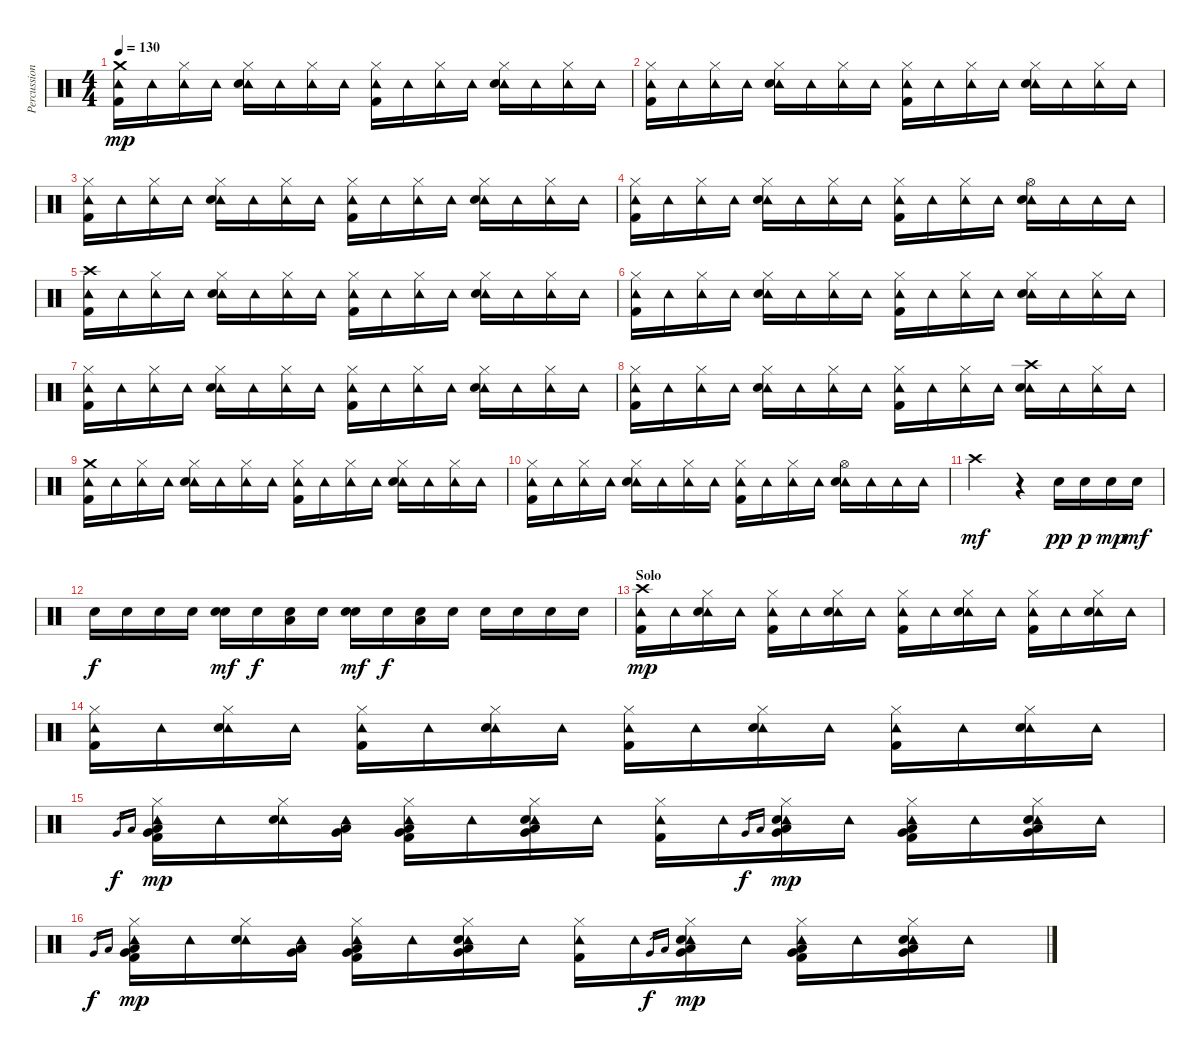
\track ("Percussion (Bela)" "Percussion") {instrument percussion}
\staff {score}
\articulation defaults
\ts (4 4)
\tempo 130
\clef neutral
\ks c
("Crash medium (hit)" "Tambourine (hit)" "Kick (hit) 2").16{dy mp} "Tambourine (hit)".16 ("Hi-Hat (closed)" "Tambourine (hit)").16 "Tambourine (hit)".16 ("Hi-Hat (closed)" "Tambourine (hit)" "Electric Snare (hit)").16 "Tambourine (hit)".16 ("Hi-Hat (closed)" "Tambourine (hit)").16 "Tambourine (hit)".16 ("Hi-Hat (closed)" "Tambourine (hit)" "Kick (hit) 2").16 "Tambourine (hit)".16 ("Hi-Hat (closed)" "Tambourine (hit)").16 "Tambourine (hit)".16 ("Hi-Hat (closed)" "Tambourine (hit)" "Electric Snare (hit)").16 "Tambourine (hit)".16 ("Hi-Hat (closed)" "Tambourine (hit)").16 "Tambourine (hit)".16 |
("Hi-Hat (closed)" "Tambourine (hit)" "Kick (hit) 2").16 "Tambourine (hit)".16 ("Hi-Hat (closed)" "Tambourine (hit)").16 "Tambourine (hit)".16 ("Hi-Hat (closed)" "Tambourine (hit)" "Electric Snare (hit)").16 "Tambourine (hit)".16 ("Hi-Hat (closed)" "Tambourine (hit)").16 "Tambourine (hit)".16 ("Hi-Hat (closed)" "Tambourine (hit)" "Kick (hit) 2").16 "Tambourine (hit)".16 ("Hi-Hat (closed)" "Tambourine (hit)").16 "Tambourine (hit)".16 ("Hi-Hat (closed)" "Tambourine (hit)" "Electric Snare (hit)").16 "Tambourine (hit)".16 ("Hi-Hat (closed)" "Tambourine (hit)").16 "Tambourine (hit)".16 |
("Hi-Hat (closed)" "Tambourine (hit)" "Kick (hit) 2").16 "Tambourine (hit)".16 ("Hi-Hat (closed)" "Tambourine (hit)").16 "Tambourine (hit)".16 ("Hi-Hat (closed)" "Tambourine (hit)" "Electric Snare (hit)").16 "Tambourine (hit)".16 ("Hi-Hat (closed)" "Tambourine (hit)").16 "Tambourine (hit)".16 ("Hi-Hat (closed)" "Tambourine (hit)" "Kick (hit) 2").16 "Tambourine (hit)".16 ("Hi-Hat (closed)" "Tambourine (hit)").16 "Tambourine (hit)".16 ("Hi-Hat (closed)" "Tambourine (hit)" "Electric Snare (hit)").16 "Tambourine (hit)".16 ("Hi-Hat (closed)" "Tambourine (hit)").16 "Tambourine (hit)".16 |
("Hi-Hat (closed)" "Tambourine (hit)" "Kick (hit) 2").16 "Tambourine (hit)".16 ("Hi-Hat (closed)" "Tambourine (hit)").16 "Tambourine (hit)".16 ("Hi-Hat (closed)" "Tambourine (hit)" "Electric Snare (hit)").16 "Tambourine (hit)".16 ("Hi-Hat (closed)" "Tambourine (hit)").16 "Tambourine (hit)".16 ("Hi-Hat (closed)" "Tambourine (hit)" "Kick (hit) 2").16 "Tambourine (hit)".16 ("Hi-Hat (closed)" "Tambourine (hit)").16 "Tambourine (hit)".16 ("Hi-Hat (open)" "Tambourine (hit)" "Electric Snare (hit)").16 "Tambourine (hit)".16 "Tambourine (hit)".16 "Tambourine (hit)".16 |
("Crash high (hit)" "Tambourine (hit)" "Kick (hit) 2").16 "Tambourine (hit)".16 ("Hi-Hat (closed)" "Tambourine (hit)").16 "Tambourine (hit)".16 ("Hi-Hat (closed)" "Tambourine (hit)" "Electric Snare (hit)").16 "Tambourine (hit)".16 ("Hi-Hat (closed)" "Tambourine (hit)").16 "Tambourine (hit)".16 ("Hi-Hat (closed)" "Tambourine (hit)" "Kick (hit) 2").16 "Tambourine (hit)".16 ("Hi-Hat (closed)" "Tambourine (hit)").16 "Tambourine (hit)".16 ("Hi-Hat (closed)" "Tambourine (hit)" "Electric Snare (hit)").16 "Tambourine (hit)".16 ("Hi-Hat (closed)" "Tambourine (hit)").16 "Tambourine (hit)".16 |
("Hi-Hat (closed)" "Tambourine (hit)" "Kick (hit) 2").16 "Tambourine (hit)".16 ("Hi-Hat (closed)" "Tambourine (hit)").16 "Tambourine (hit)".16 ("Hi-Hat (closed)" "Tambourine (hit)" "Electric Snare (hit)").16 "Tambourine (hit)".16 ("Hi-Hat (closed)" "Tambourine (hit)").16 "Tambourine (hit)".16 ("Hi-Hat (closed)" "Tambourine (hit)" "Kick (hit) 2").16 "Tambourine (hit)".16 ("Hi-Hat (closed)" "Tambourine (hit)").16 "Tambourine (hit)".16 ("Hi-Hat (closed)" "Tambourine (hit)" "Electric Snare (hit)").16 "Tambourine (hit)".16 ("Hi-Hat (closed)" "Tambourine (hit)").16 "Tambourine (hit)".16 |
("Hi-Hat (closed)" "Tambourine (hit)" "Kick (hit) 2").16 "Tambourine (hit)".16 ("Hi-Hat (closed)" "Tambourine (hit)").16 "Tambourine (hit)".16 ("Hi-Hat (closed)" "Tambourine (hit)" "Electric Snare (hit)").16 "Tambourine (hit)".16 ("Hi-Hat (closed)" "Tambourine (hit)").16 "Tambourine (hit)".16 ("Hi-Hat (closed)" "Tambourine (hit)" "Kick (hit) 2").16 "Tambourine (hit)".16 ("Hi-Hat (closed)" "Tambourine (hit)").16 "Tambourine (hit)".16 ("Hi-Hat (closed)" "Tambourine (hit)" "Electric Snare (hit)").16 "Tambourine (hit)".16 ("Hi-Hat (closed)" "Tambourine (hit)").16 "Tambourine (hit)".16 |
("Hi-Hat (closed)" "Tambourine (hit)" "Kick (hit) 2").16 "Tambourine (hit)".16 ("Hi-Hat (closed)" "Tambourine (hit)").16 "Tambourine (hit)".16 ("Hi-Hat (closed)" "Tambourine (hit)" "Electric Snare (hit)").16 "Tambourine (hit)".16 ("Hi-Hat (closed)" "Tambourine (hit)").16 "Tambourine (hit)".16 ("Hi-Hat (closed)" "Tambourine (hit)" "Kick (hit) 2").16 "Tambourine (hit)".16 ("Hi-Hat (closed)" "Tambourine (hit)").16 "Tambourine (hit)".16 ("Crash high (hit)" "Tambourine (hit)" "Electric Snare (hit)").16 "Tambourine (hit)".16 ("Hi-Hat (closed)" "Tambourine (hit)").16 "Tambourine (hit)".16 |
("Crash medium (hit)" "Tambourine (hit)" "Kick (hit) 2").16 "Tambourine (hit)".16 ("Hi-Hat (closed)" "Tambourine (hit)").16 "Tambourine (hit)".16 ("Hi-Hat (closed)" "Tambourine (hit)" "Electric Snare (hit)").16 "Tambourine (hit)".16 ("Hi-Hat (closed)" "Tambourine (hit)").16 "Tambourine (hit)".16 ("Hi-Hat (closed)" "Tambourine (hit)" "Kick (hit) 2").16 "Tambourine (hit)".16 ("Hi-Hat (closed)" "Tambourine (hit)").16 "Tambourine (hit)".16 ("Hi-Hat (closed)" "Tambourine (hit)" "Electric Snare (hit)").16 "Tambourine (hit)".16 ("Hi-Hat (closed)" "Tambourine (hit)").16 "Tambourine (hit)".16 |
("Hi-Hat (closed)" "Tambourine (hit)" "Kick (hit) 2").16 "Tambourine (hit)".16 ("Hi-Hat (closed)" "Tambourine (hit)").16 "Tambourine (hit)".16 ("Hi-Hat (closed)" "Tambourine (hit)" "Electric Snare (hit)").16 "Tambourine (hit)".16 ("Hi-Hat (closed)" "Tambourine (hit)").16 "Tambourine (hit)".16 ("Hi-Hat (closed)" "Tambourine (hit)" "Kick (hit) 2").16 "Tambourine (hit)".16 ("Hi-Hat (closed)" "Tambourine (hit)").16 "Tambourine (hit)".16 ("Hi-Hat (open)" "Tambourine (hit)" "Electric Snare (hit)").16 "Tambourine (hit)".16 "Tambourine (hit)".16 "Tambourine (hit)".16 |
"Crash high (hit)".2{dy mf} r.4 "Electric Snare (hit)".16{dy pp} "Electric Snare (hit)".16{dy p} "Electric Snare (hit)".16{dy mp} "Electric Snare (hit)".16{dy mf} |
"Electric Snare (hit)".16{dy f} "Electric Snare (hit)".16 "Electric Snare (hit)".16 "Electric Snare (hit)".16 ("Electric Snare (hit)" "Snare (hit) 2").16{dy mf} "Electric Snare (hit)".16{dy f} ("Electric Snare (hit)" "Low Tom (hit)").16 "Electric Snare (hit)".16 ("Electric Snare (hit)" "Snare (hit) 2").16{dy mf} "Electric Snare (hit)".16{dy f} ("Electric Snare (hit)" "Low Tom (hit)").16 "Electric Snare (hit)".16 "Electric Snare (hit)".16 "Electric Snare (hit)".16 "Electric Snare (hit)".16 "Electric Snare (hit)".16 |
\section ("" "Solo")
("Crash high (hit)" "Tambourine (hit)" "Kick (hit) 2").16{dy mp} "Tambourine (hit)".16 ("Hi-Hat (closed)" "Tambourine (hit)" "Electric Snare (hit)").16 "Tambourine (hit)".16 ("Hi-Hat (closed)" "Tambourine (hit)" "Kick (hit) 2").16 "Tambourine (hit)".16 ("Hi-Hat (closed)" "Tambourine (hit)" "Electric Snare (hit)").16 "Tambourine (hit)".16 ("Hi-Hat (closed)" "Tambourine (hit)" "Kick (hit) 2").16 "Tambourine (hit)".16 ("Hi-Hat (closed)" "Tambourine (hit)" "Electric Snare (hit)").16 "Tambourine (hit)".16 ("Hi-Hat (closed)" "Tambourine (hit)" "Kick (hit) 2").16 "Tambourine (hit)".16 ("Hi-Hat (closed)" "Tambourine (hit)" "Electric Snare (hit)").16 "Tambourine (hit)".16 |
("Hi-Hat (closed)" "Tambourine (hit)" "Kick (hit) 2").16 "Tambourine (hit)".16 ("Hi-Hat (closed)" "Tambourine (hit)" "Electric Snare (hit)").16 "Tambourine (hit)".16 ("Hi-Hat (closed)" "Tambourine (hit)" "Kick (hit) 2").16 "Tambourine (hit)".16 ("Hi-Hat (closed)" "Tambourine (hit)" "Electric Snare (hit)").16 "Tambourine (hit)".16 ("Hi-Hat (closed)" "Tambourine (hit)" "Kick (hit) 2").16 "Tambourine (hit)".16 ("Hi-Hat (closed)" "Tambourine (hit)" "Electric Snare (hit)").16 "Tambourine (hit)".16 ("Hi-Hat (closed)" "Tambourine (hit)" "Kick (hit) 2").16 "Tambourine (hit)".16 ("Hi-Hat (closed)" "Tambourine (hit)" "Electric Snare (hit)").16 "Tambourine (hit)".16 |
"Very Low Tom (hit)".16{gr dy f} "Low Floor Tom (hit)".16{gr} ("Hi-Hat (closed)" "Tambourine (hit)" "Very Low Tom (hit)" "Low Floor Tom (hit)" "Kick (hit) 2").16{dy mp} "Tambourine (hit)".16 ("Hi-Hat (closed)" "Tambourine (hit)" "Electric Snare (hit)").16 ("Tambourine (hit)" "Very Low Tom (hit)" "Low Floor Tom (hit)").16 ("Hi-Hat (closed)" "Tambourine (hit)" "Very Low Tom (hit)" "Low Floor Tom (hit)" "Kick (hit) 2").16 "Tambourine (hit)".16 ("Hi-Hat (closed)" "Tambourine (hit)" "Electric Snare (hit)" "Very Low Tom (hit)" "Low Floor Tom (hit)").16 "Tambourine (hit)".16 ("Hi-Hat (closed)" "Tambourine (hit)" "Kick (hit) 2").16 "Tambourine (hit)".16 "Very Low Tom (hit)".16{gr dy f} "Low Floor Tom (hit)".16{gr} ("Hi-Hat (closed)" "Tambourine (hit)" "Electric Snare (hit)" "Very Low Tom (hit)" "Low Floor Tom (hit)").16{dy mp} "Tambourine (hit)".16 ("Hi-Hat (closed)" "Tambourine (hit)" "Very Low Tom (hit)" "Low Floor Tom (hit)" "Kick (hit) 2").16 "Tambourine (hit)".16 ("Hi-Hat (closed)" "Tambourine (hit)" "Electric Snare (hit)" "Very Low Tom (hit)" "Low Floor Tom (hit)").16 "Tambourine (hit)".16 |
"Very Low Tom (hit)".16{gr dy f} "Low Floor Tom (hit)".16{gr} ("Hi-Hat (closed)" "Tambourine (hit)" "Very Low Tom (hit)" "Low Floor Tom (hit)" "Kick (hit) 2").16{dy mp} "Tambourine (hit)".16 ("Hi-Hat (closed)" "Tambourine (hit)" "Electric Snare (hit)").16 ("Tambourine (hit)" "Very Low Tom (hit)" "Low Floor Tom (hit)").16 ("Hi-Hat (closed)" "Tambourine (hit)" "Very Low Tom (hit)" "Low Floor Tom (hit)" "Kick (hit) 2").16 "Tambourine (hit)".16 ("Hi-Hat (closed)" "Tambourine (hit)" "Electric Snare (hit)" "Very Low Tom (hit)" "Low Floor Tom (hit)").16 "Tambourine (hit)".16 ("Hi-Hat (closed)" "Tambourine (hit)" "Kick (hit) 2").16 "Tambourine (hit)".16 "Very Low Tom (hit)".16{gr dy f} "Low Floor Tom (hit)".16{gr} ("Hi-Hat (closed)" "Tambourine (hit)" "Electric Snare (hit)" "Very Low Tom (hit)" "Low Floor Tom (hit)").16{dy mp} "Tambourine (hit)".16 ("Hi-Hat (closed)" "Tambourine (hit)" "Very Low Tom (hit)" "Low Floor Tom (hit)" "Kick (hit) 2").16 "Tambourine (hit)".16 ("Hi-Hat (closed)" "Tambourine (hit)" "Electric Snare (hit)" "Very Low Tom (hit)" "Low Floor Tom (hit)").16 "Tambourine (hit)".16
